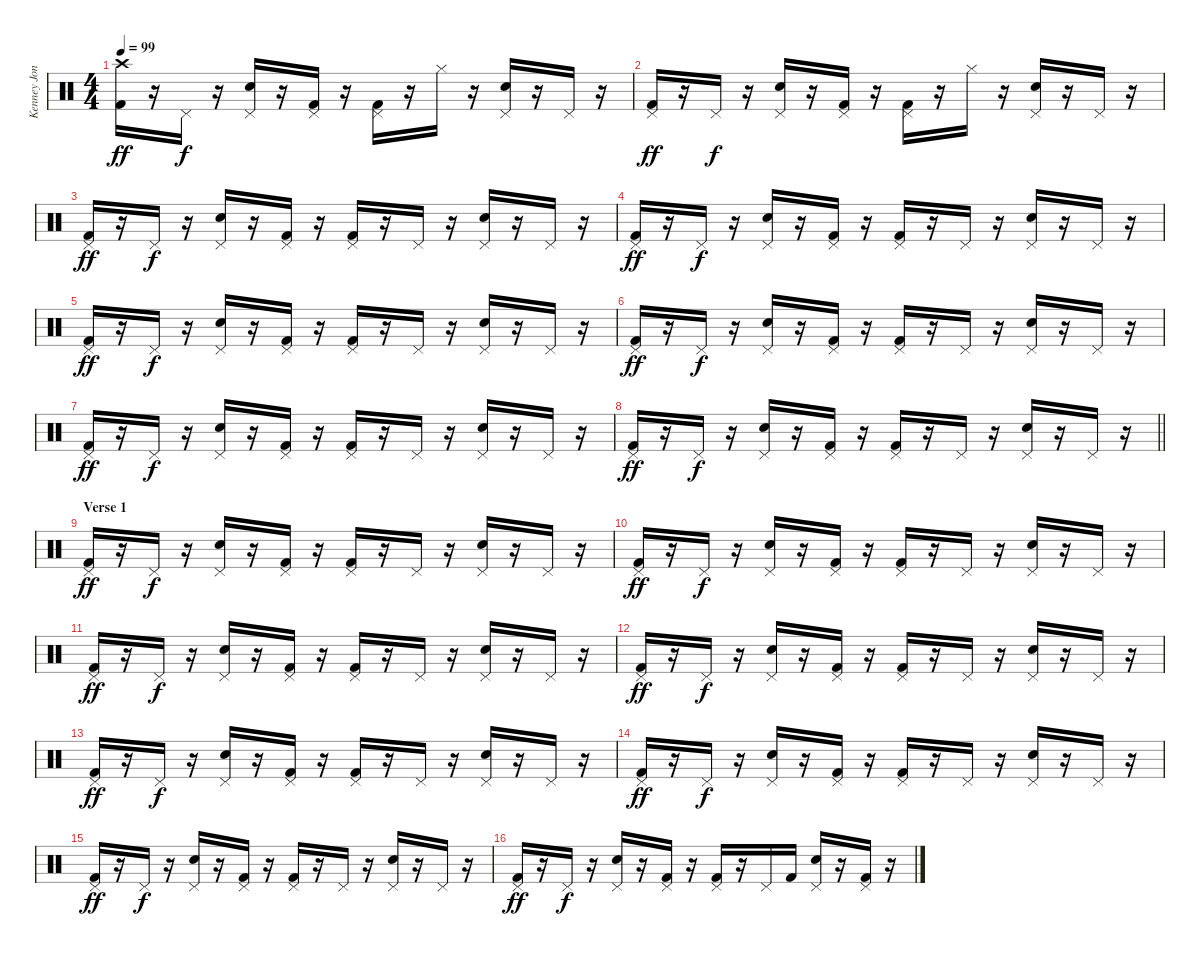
\track ("Kenney Jones" "Kenney Jon") {instrument percussion}
\staff {score}
\articulation defaults
\ts (4 4)
\tempo 99
\clef neutral
\ks c
("Crash high (hit)" "Kick (hit) 2").16{dy ff} r.16 "Pedal Hi-Hat (hit)".16{dy f} r.16 ("Pedal Hi-Hat (hit)" "Snare (hit) 2").16 r.16 ("Pedal Hi-Hat (hit)" "Kick (hit) 2").16 r.16 ("Pedal Hi-Hat (hit)" "Kick (hit) 2").16 r.16 "Hi-Hat (closed)".16 r.16 ("Pedal Hi-Hat (hit)" "Snare (hit) 2").16 r.16 "Pedal Hi-Hat (hit)".16 r.16 |
("Pedal Hi-Hat (hit)" "Kick (hit) 2").16{dy ff} r.16 "Pedal Hi-Hat (hit)".16{dy f} r.16 ("Pedal Hi-Hat (hit)" "Snare (hit) 2").16 r.16 ("Pedal Hi-Hat (hit)" "Kick (hit) 2").16 r.16 ("Pedal Hi-Hat (hit)" "Kick (hit) 2").16 r.16 "Hi-Hat (closed)".16 r.16 ("Pedal Hi-Hat (hit)" "Snare (hit) 2").16 r.16 "Pedal Hi-Hat (hit)".16 r.16 |
("Pedal Hi-Hat (hit)" "Kick (hit) 2").16{dy ff} r.16 "Pedal Hi-Hat (hit)".16{dy f} r.16 ("Pedal Hi-Hat (hit)" "Snare (hit) 2").16 r.16 ("Pedal Hi-Hat (hit)" "Kick (hit) 2").16 r.16 ("Pedal Hi-Hat (hit)" "Kick (hit) 2").16 r.16 "Pedal Hi-Hat (hit)".16 r.16 ("Pedal Hi-Hat (hit)" "Snare (hit) 2").16 r.16 "Pedal Hi-Hat (hit)".16 r.16 |
("Pedal Hi-Hat (hit)" "Kick (hit) 2").16{dy ff} r.16 "Pedal Hi-Hat (hit)".16{dy f} r.16 ("Pedal Hi-Hat (hit)" "Snare (hit) 2").16 r.16 ("Pedal Hi-Hat (hit)" "Kick (hit) 2").16 r.16 ("Pedal Hi-Hat (hit)" "Kick (hit) 2").16 r.16 "Pedal Hi-Hat (hit)".16 r.16 ("Pedal Hi-Hat (hit)" "Snare (hit) 2").16 r.16 "Pedal Hi-Hat (hit)".16 r.16 |
("Pedal Hi-Hat (hit)" "Kick (hit) 2").16{dy ff} r.16 "Pedal Hi-Hat (hit)".16{dy f} r.16 ("Pedal Hi-Hat (hit)" "Snare (hit) 2").16 r.16 ("Pedal Hi-Hat (hit)" "Kick (hit) 2").16 r.16 ("Pedal Hi-Hat (hit)" "Kick (hit) 2").16 r.16 "Pedal Hi-Hat (hit)".16 r.16 ("Pedal Hi-Hat (hit)" "Snare (hit) 2").16 r.16 "Pedal Hi-Hat (hit)".16 r.16 |
("Pedal Hi-Hat (hit)" "Kick (hit) 2").16{dy ff} r.16 "Pedal Hi-Hat (hit)".16{dy f} r.16 ("Pedal Hi-Hat (hit)" "Snare (hit) 2").16 r.16 ("Pedal Hi-Hat (hit)" "Kick (hit) 2").16 r.16 ("Pedal Hi-Hat (hit)" "Kick (hit) 2").16 r.16 "Pedal Hi-Hat (hit)".16 r.16 ("Pedal Hi-Hat (hit)" "Snare (hit) 2").16 r.16 "Pedal Hi-Hat (hit)".16 r.16 |
("Pedal Hi-Hat (hit)" "Kick (hit) 2").16{dy ff} r.16 "Pedal Hi-Hat (hit)".16{dy f} r.16 ("Pedal Hi-Hat (hit)" "Snare (hit) 2").16 r.16 ("Pedal Hi-Hat (hit)" "Kick (hit) 2").16 r.16 ("Pedal Hi-Hat (hit)" "Kick (hit) 2").16 r.16 "Pedal Hi-Hat (hit)".16 r.16 ("Pedal Hi-Hat (hit)" "Snare (hit) 2").16 r.16 "Pedal Hi-Hat (hit)".16 r.16 |
\barLineRight lightlight
("Pedal Hi-Hat (hit)" "Kick (hit) 2").16{dy ff} r.16 "Pedal Hi-Hat (hit)".16{dy f} r.16 ("Pedal Hi-Hat (hit)" "Snare (hit) 2").16 r.16 ("Pedal Hi-Hat (hit)" "Kick (hit) 2").16 r.16 ("Pedal Hi-Hat (hit)" "Kick (hit) 2").16 r.16 "Pedal Hi-Hat (hit)".16 r.16 ("Pedal Hi-Hat (hit)" "Snare (hit) 2").16 r.16 "Pedal Hi-Hat (hit)".16 r.16 |
\section ("" "Verse 1")
("Pedal Hi-Hat (hit)" "Kick (hit) 2").16{dy ff} r.16 "Pedal Hi-Hat (hit)".16{dy f} r.16 ("Pedal Hi-Hat (hit)" "Snare (hit) 2").16 r.16 ("Pedal Hi-Hat (hit)" "Kick (hit) 2").16 r.16 ("Pedal Hi-Hat (hit)" "Kick (hit) 2").16 r.16 "Pedal Hi-Hat (hit)".16 r.16 ("Pedal Hi-Hat (hit)" "Snare (hit) 2").16 r.16 "Pedal Hi-Hat (hit)".16 r.16 |
("Pedal Hi-Hat (hit)" "Kick (hit) 2").16{dy ff} r.16 "Pedal Hi-Hat (hit)".16{dy f} r.16 ("Pedal Hi-Hat (hit)" "Snare (hit) 2").16 r.16 ("Pedal Hi-Hat (hit)" "Kick (hit) 2").16 r.16 ("Pedal Hi-Hat (hit)" "Kick (hit) 2").16 r.16 "Pedal Hi-Hat (hit)".16 r.16 ("Pedal Hi-Hat (hit)" "Snare (hit) 2").16 r.16 "Pedal Hi-Hat (hit)".16 r.16 |
("Pedal Hi-Hat (hit)" "Kick (hit) 2").16{dy ff} r.16 "Pedal Hi-Hat (hit)".16{dy f} r.16 ("Pedal Hi-Hat (hit)" "Snare (hit) 2").16 r.16 ("Pedal Hi-Hat (hit)" "Kick (hit) 2").16 r.16 ("Pedal Hi-Hat (hit)" "Kick (hit) 2").16 r.16 "Pedal Hi-Hat (hit)".16 r.16 ("Pedal Hi-Hat (hit)" "Snare (hit) 2").16 r.16 "Pedal Hi-Hat (hit)".16 r.16 |
("Pedal Hi-Hat (hit)" "Kick (hit) 2").16{dy ff} r.16 "Pedal Hi-Hat (hit)".16{dy f} r.16 ("Pedal Hi-Hat (hit)" "Snare (hit) 2").16 r.16 ("Pedal Hi-Hat (hit)" "Kick (hit) 2").16 r.16 ("Pedal Hi-Hat (hit)" "Kick (hit) 2").16 r.16 "Pedal Hi-Hat (hit)".16 r.16 ("Pedal Hi-Hat (hit)" "Snare (hit) 2").16 r.16 "Pedal Hi-Hat (hit)".16 r.16 |
("Pedal Hi-Hat (hit)" "Kick (hit) 2").16{dy ff} r.16 "Pedal Hi-Hat (hit)".16{dy f} r.16 ("Pedal Hi-Hat (hit)" "Snare (hit) 2").16 r.16 ("Pedal Hi-Hat (hit)" "Kick (hit) 2").16 r.16 ("Pedal Hi-Hat (hit)" "Kick (hit) 2").16 r.16 "Pedal Hi-Hat (hit)".16 r.16 ("Pedal Hi-Hat (hit)" "Snare (hit) 2").16 r.16 "Pedal Hi-Hat (hit)".16 r.16 |
("Pedal Hi-Hat (hit)" "Kick (hit) 2").16{dy ff} r.16 "Pedal Hi-Hat (hit)".16{dy f} r.16 ("Pedal Hi-Hat (hit)" "Snare (hit) 2").16 r.16 ("Pedal Hi-Hat (hit)" "Kick (hit) 2").16 r.16 ("Pedal Hi-Hat (hit)" "Kick (hit) 2").16 r.16 "Pedal Hi-Hat (hit)".16 r.16 ("Pedal Hi-Hat (hit)" "Snare (hit) 2").16 r.16 "Pedal Hi-Hat (hit)".16 r.16 |
("Pedal Hi-Hat (hit)" "Kick (hit) 2").16{dy ff} r.16 "Pedal Hi-Hat (hit)".16{dy f} r.16 ("Pedal Hi-Hat (hit)" "Snare (hit) 2").16 r.16 ("Pedal Hi-Hat (hit)" "Kick (hit) 2").16 r.16 ("Pedal Hi-Hat (hit)" "Kick (hit) 2").16 r.16 "Pedal Hi-Hat (hit)".16 r.16 ("Pedal Hi-Hat (hit)" "Snare (hit) 2").16 r.16 "Pedal Hi-Hat (hit)".16 r.16 |
("Pedal Hi-Hat (hit)" "Kick (hit) 2").16{dy ff} r.16 "Pedal Hi-Hat (hit)".16{dy f} r.16 ("Pedal Hi-Hat (hit)" "Snare (hit) 2").16 r.16 ("Pedal Hi-Hat (hit)" "Kick (hit) 2").16 r.16 ("Pedal Hi-Hat (hit)" "Kick (hit) 2").16 r.16 "Pedal Hi-Hat (hit)".16 "Kick (hit) 2".16 ("Pedal Hi-Hat (hit)" "Snare (hit) 2").16 r.16 ("Pedal Hi-Hat (hit)" "Kick (hit) 2").16 r.16
